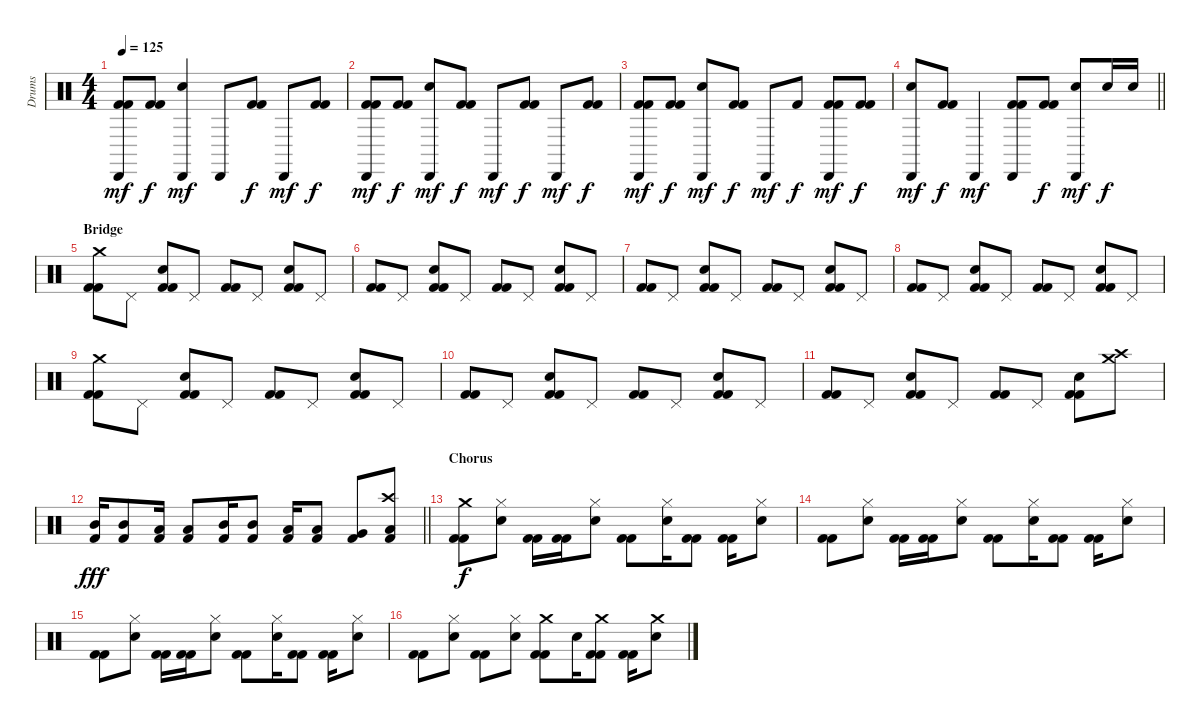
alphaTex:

\track ("Drums" "Drums") {instrument percussion}
\staff {score}
\articulation defaults
\ts (4 4)
\tempo 125
\clef neutral
\ks c
("Cabasa (hit)" "Kick (hit) 2" "Kick (hit) 2").8{dy mf} ("Kick (hit) 2" "Kick (hit) 2").8{dy f} ("Cabasa (hit)" "Electric Snare (hit)").4{dy mf} "Cabasa (hit)".8 ("Kick (hit) 2" "Kick (hit) 2").8{dy f} "Cabasa (hit)".8{dy mf} ("Kick (hit) 2" "Kick (hit) 2").8{dy f} |
("Cabasa (hit)" "Kick (hit) 2" "Kick (hit) 2").8{dy mf} ("Kick (hit) 2" "Kick (hit) 2").8{dy f} ("Cabasa (hit)" "Electric Snare (hit)").8{dy mf} ("Kick (hit) 2" "Kick (hit) 2").8{dy f} "Cabasa (hit)".8{dy mf} ("Kick (hit) 2" "Kick (hit) 2").8{dy f} "Cabasa (hit)".8{dy mf} ("Kick (hit) 2" "Kick (hit) 2").8{dy f} |
("Cabasa (hit)" "Kick (hit) 2" "Kick (hit) 2").8{dy mf} ("Kick (hit) 2" "Kick (hit) 2").8{dy f} ("Cabasa (hit)" "Electric Snare (hit)").8{dy mf} ("Kick (hit) 2" "Kick (hit) 2").8{dy f} "Cabasa (hit)".8{dy mf} "Kick (hit) 2".8{dy f} ("Cabasa (hit)" "Kick (hit) 2" "Kick (hit) 2").8{dy mf} ("Kick (hit) 2" "Kick (hit) 2").8{dy f} |
\barLineRight lightlight
("Cabasa (hit)" "Electric Snare (hit)").8{dy mf} ("Kick (hit) 2" "Kick (hit) 2").8{dy f} "Cabasa (hit)".4{dy mf} ("Cabasa (hit)" "Kick (hit) 2" "Kick (hit) 2").8 ("Kick (hit) 2" "Kick (hit) 2").8{dy f} ("Cabasa (hit)" "Electric Snare (hit)").8{dy mf} "Snare (hit) 2".16{dy f} "Snare (hit) 2".16 |
\section ("" "Bridge")
("Crash medium (hit)" "Kick (hit) 2" "Kick (hit) 2").8 "Pedal Hi-Hat (hit)".8 ("Snare (hit) 2" "Kick (hit) 2" "Kick (hit) 2").8 "Pedal Hi-Hat (hit)".8 ("Kick (hit) 2" "Kick (hit) 2").8 "Pedal Hi-Hat (hit)".8 ("Snare (hit) 2" "Kick (hit) 2" "Kick (hit) 2").8 "Pedal Hi-Hat (hit)".8 |
("Kick (hit) 2" "Kick (hit) 2").8 "Pedal Hi-Hat (hit)".8 ("Snare (hit) 2" "Kick (hit) 2" "Kick (hit) 2").8 "Pedal Hi-Hat (hit)".8 ("Kick (hit) 2" "Kick (hit) 2").8 "Pedal Hi-Hat (hit)".8 ("Snare (hit) 2" "Kick (hit) 2" "Kick (hit) 2").8 "Pedal Hi-Hat (hit)".8 |
("Kick (hit) 2" "Kick (hit) 2").8 "Pedal Hi-Hat (hit)".8 ("Snare (hit) 2" "Kick (hit) 2" "Kick (hit) 2").8 "Pedal Hi-Hat (hit)".8 ("Kick (hit) 2" "Kick (hit) 2").8 "Pedal Hi-Hat (hit)".8 ("Snare (hit) 2" "Kick (hit) 2" "Kick (hit) 2").8 "Pedal Hi-Hat (hit)".8 |
("Kick (hit) 2" "Kick (hit) 2").8 "Pedal Hi-Hat (hit)".8 ("Snare (hit) 2" "Kick (hit) 2" "Kick (hit) 2").8 "Pedal Hi-Hat (hit)".8 ("Kick (hit) 2" "Kick (hit) 2").8 "Pedal Hi-Hat (hit)".8 ("Snare (hit) 2" "Kick (hit) 2" "Kick (hit) 2").8 "Pedal Hi-Hat (hit)".8 |
("Crash medium (hit)" "Kick (hit) 2" "Kick (hit) 2").8 "Pedal Hi-Hat (hit)".8 ("Snare (hit) 2" "Kick (hit) 2" "Kick (hit) 2").8 "Pedal Hi-Hat (hit)".8 ("Kick (hit) 2" "Kick (hit) 2").8 "Pedal Hi-Hat (hit)".8 ("Snare (hit) 2" "Kick (hit) 2" "Kick (hit) 2").8 "Pedal Hi-Hat (hit)".8 |
("Kick (hit) 2" "Kick (hit) 2").8 "Pedal Hi-Hat (hit)".8 ("Snare (hit) 2" "Kick (hit) 2" "Kick (hit) 2").8 "Pedal Hi-Hat (hit)".8 ("Kick (hit) 2" "Kick (hit) 2").8 "Pedal Hi-Hat (hit)".8 ("Snare (hit) 2" "Kick (hit) 2" "Kick (hit) 2").8 "Pedal Hi-Hat (hit)".8 |
("Kick (hit) 2" "Kick (hit) 2").8 "Pedal Hi-Hat (hit)".8 ("Snare (hit) 2" "Kick (hit) 2" "Kick (hit) 2").8 "Pedal Hi-Hat (hit)".8 ("Kick (hit) 2" "Kick (hit) 2").8 "Pedal Hi-Hat (hit)".8 ("Snare (hit) 2" "Kick (hit) 2" "Kick (hit) 2").8 ("Crash medium (hit)" "Crash high (hit)").8 |
\barLineRight lightlight
("Mid Tom (hit)" "Kick (hit) 2").16{dy fff} ("Mid Tom (hit)" "Kick (hit) 2").8 ("Low Tom (hit)" "Kick (hit) 2").16 ("Low Tom (hit)" "Kick (hit) 2").8 ("Mid Tom (hit)" "Kick (hit) 2").16 ("Mid Tom (hit)" "Kick (hit) 2").8 ("Low Tom (hit)" "Kick (hit) 2").16 ("Low Tom (hit)" "Kick (hit) 2").8 ("Very Low Tom (hit)" "Kick (hit) 2").8 ("Crash high (hit)" "Low Floor Tom (hit)" "Kick (hit) 2").8 |
\section ("" "Chorus")
("Crash medium (hit)" "Kick (hit) 2" "Kick (hit) 2").8{dy f} ("Hi-Hat (closed)" "Electric Snare (hit)").8 ("Kick (hit) 2" "Kick (hit) 2").16 ("Kick (hit) 2" "Kick (hit) 2").16 ("Hi-Hat (closed)" "Electric Snare (hit)").8 ("Kick (hit) 2" "Kick (hit) 2").8 ("Hi-Hat (closed)" "Electric Snare (hit)").16 ("Kick (hit) 2" "Kick (hit) 2").8 ("Kick (hit) 2" "Kick (hit) 2").16 ("Hi-Hat (closed)" "Electric Snare (hit)").8 |
("Kick (hit) 2" "Kick (hit) 2").8 ("Hi-Hat (closed)" "Electric Snare (hit)").8 ("Kick (hit) 2" "Kick (hit) 2").16 ("Kick (hit) 2" "Kick (hit) 2").16 ("Hi-Hat (closed)" "Electric Snare (hit)").8 ("Kick (hit) 2" "Kick (hit) 2").8 ("Hi-Hat (closed)" "Electric Snare (hit)").16 ("Kick (hit) 2" "Kick (hit) 2").8 ("Kick (hit) 2" "Kick (hit) 2").16 ("Hi-Hat (closed)" "Electric Snare (hit)").8 |
("Kick (hit) 2" "Kick (hit) 2").8 ("Hi-Hat (closed)" "Electric Snare (hit)").8 ("Kick (hit) 2" "Kick (hit) 2").16 ("Kick (hit) 2" "Kick (hit) 2").16 ("Hi-Hat (closed)" "Electric Snare (hit)").8 ("Kick (hit) 2" "Kick (hit) 2").8 ("Hi-Hat (closed)" "Electric Snare (hit)").16 ("Kick (hit) 2" "Kick (hit) 2").8 ("Kick (hit) 2" "Kick (hit) 2").16 ("Hi-Hat (closed)" "Electric Snare (hit)").8 |
("Kick (hit) 2" "Kick (hit) 2").8 ("Hi-Hat (closed)" "Electric Snare (hit)").8 ("Kick (hit) 2" "Kick (hit) 2").8 ("Hi-Hat (closed)" "Electric Snare (hit)").8 ("Crash medium (hit)" "Kick (hit) 2" "Kick (hit) 2").8 "Electric Snare (hit)".16 ("Crash medium (hit)" "Kick (hit) 2" "Kick (hit) 2").8 ("Kick (hit) 2" "Kick (hit) 2").16 ("Crash medium (hit)" "Electric Snare (hit)").8
